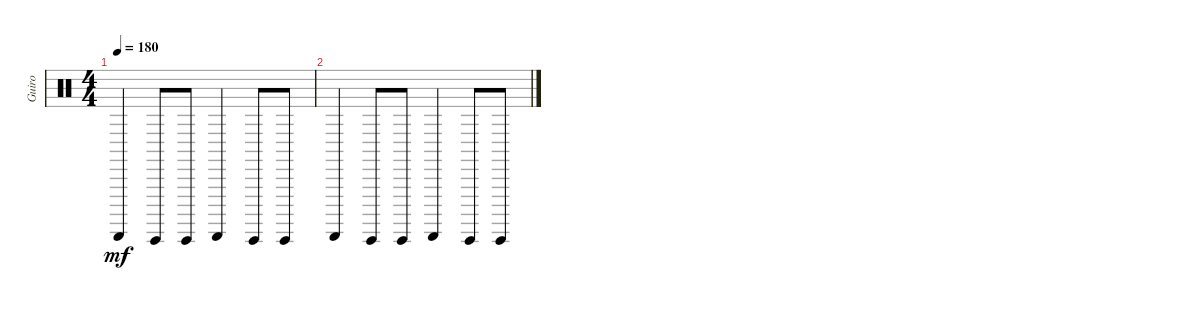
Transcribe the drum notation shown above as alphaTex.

\track ("Guiro" "Guiro") {instrument percussion}
\staff {score}
\articulation defaults
\ts (4 4)
\tempo 180
\clef neutral
\ks c "Guiro (scrap-return)".4{dy mf} "Guiro (hit)".8 "Guiro (hit)".8 "Guiro (scrap-return)".4 "Guiro (hit)".8 "Guiro (hit)".8
|
"Guiro (scrap-return)".4 "Guiro (hit)".8 "Guiro (hit)".8 "Guiro (scrap-return)".4 "Guiro (hit)".8 "Guiro (hit)".8
